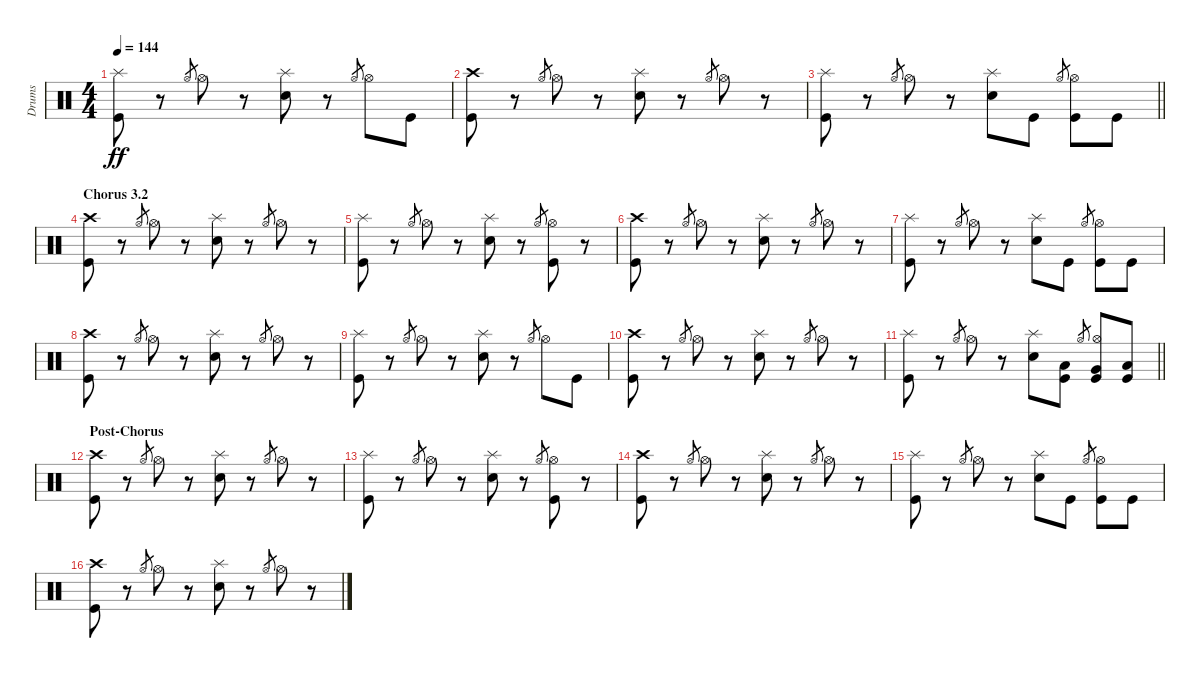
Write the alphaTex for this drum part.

\track ("Drums" "Drums") {instrument percussion}
\staff {score}
\articulation defaults
\ts (4 4)
\tempo 144
\clef neutral
\ks c
("Splash (hit)" "Kick (hit)").8{dy ff} r.8 "Hi-Hat (open)".8{gr} "Hi-Hat (open)".8 r.8 ("Splash (hit)" "Snare (hit) 2").8 r.8 "Hi-Hat (open)".8{gr} "Hi-Hat (open)".8 "Kick (hit)".8 |
("Crash high (hit)" "Kick (hit)").8 r.8 "Hi-Hat (open)".8{gr} "Hi-Hat (open)".8 r.8 ("Splash (hit)" "Snare (hit) 2").8 r.8 "Hi-Hat (open)".8{gr} "Hi-Hat (open)".8 r.8 |
\barLineRight lightlight
("Splash (hit)" "Kick (hit)").8 r.8 "Hi-Hat (open)".8{gr} "Hi-Hat (open)".8 r.8 ("Splash (hit)" "Snare (hit) 2").8 "Kick (hit)".8 "Hi-Hat (open)".8{gr} ("Hi-Hat (open)" "Kick (hit)").8 "Kick (hit)".8 |
\section ("" "Chorus 3.2")
("Crash high (hit)" "Kick (hit)").8 r.8 "Hi-Hat (open)".8{gr} "Hi-Hat (open)".8 r.8 ("Splash (hit)" "Snare (hit) 2").8 r.8 "Hi-Hat (open)".8{gr} "Hi-Hat (open)".8 r.8 |
("Splash (hit)" "Kick (hit)").8 r.8 "Hi-Hat (open)".8{gr} "Hi-Hat (open)".8 r.8 ("Splash (hit)" "Snare (hit) 2").8 r.8 "Hi-Hat (open)".8{gr} ("Hi-Hat (open)" "Kick (hit)").8 r.8 |
("Crash high (hit)" "Kick (hit)").8 r.8 "Hi-Hat (open)".8{gr} "Hi-Hat (open)".8 r.8 ("Splash (hit)" "Snare (hit) 2").8 r.8 "Hi-Hat (open)".8{gr} "Hi-Hat (open)".8 r.8 |
("Splash (hit)" "Kick (hit)").8 r.8 "Hi-Hat (open)".8{gr} "Hi-Hat (open)".8 r.8 ("Splash (hit)" "Snare (hit) 2").8 "Kick (hit)".8 "Hi-Hat (open)".8{gr} ("Hi-Hat (open)" "Kick (hit)").8 "Kick (hit)".8 |
("Crash high (hit)" "Kick (hit)").8 r.8 "Hi-Hat (open)".8{gr} "Hi-Hat (open)".8 r.8 ("Splash (hit)" "Snare (hit) 2").8 r.8 "Hi-Hat (open)".8{gr} "Hi-Hat (open)".8 r.8 |
("Splash (hit)" "Kick (hit)").8 r.8 "Hi-Hat (open)".8{gr} "Hi-Hat (open)".8 r.8 ("Splash (hit)" "Snare (hit) 2").8 r.8 "Hi-Hat (open)".8{gr} "Hi-Hat (open)".8 "Kick (hit)".8 |
("Crash high (hit)" "Kick (hit)").8 r.8 "Hi-Hat (open)".8{gr} "Hi-Hat (open)".8 r.8 ("Splash (hit)" "Snare (hit) 2").8 r.8 "Hi-Hat (open)".8{gr} "Hi-Hat (open)".8 r.8 |
\barLineRight lightlight
("Splash (hit)" "Kick (hit)").8 r.8 "Hi-Hat (open)".8{gr} "Hi-Hat (open)".8 r.8 ("Splash (hit)" "Snare (hit) 2").8 ("Low Tom (hit)" "Kick (hit)").8 "Hi-Hat (open)".8{gr} ("Hi-Hat (open)" "Very Low Tom (hit)" "Kick (hit)").8 ("Low Floor Tom (hit)" "Kick (hit)").8 |
\section ("" "Post-Chorus")
("Crash high (hit)" "Kick (hit)").8 r.8 "Hi-Hat (open)".8{gr} "Hi-Hat (open)".8 r.8 ("Splash (hit)" "Snare (hit) 2").8 r.8 "Hi-Hat (open)".8{gr} "Hi-Hat (open)".8 r.8 |
("Splash (hit)" "Kick (hit)").8 r.8 "Hi-Hat (open)".8{gr} "Hi-Hat (open)".8 r.8 ("Splash (hit)" "Snare (hit) 2").8 r.8 "Hi-Hat (open)".8{gr} ("Hi-Hat (open)" "Kick (hit)").8 r.8 |
("Crash high (hit)" "Kick (hit)").8 r.8 "Hi-Hat (open)".8{gr} "Hi-Hat (open)".8 r.8 ("Splash (hit)" "Snare (hit) 2").8 r.8 "Hi-Hat (open)".8{gr} "Hi-Hat (open)".8 r.8 |
("Splash (hit)" "Kick (hit)").8 r.8 "Hi-Hat (open)".8{gr} "Hi-Hat (open)".8 r.8 ("Splash (hit)" "Snare (hit) 2").8 "Kick (hit)".8 "Hi-Hat (open)".8{gr} ("Hi-Hat (open)" "Kick (hit)").8 "Kick (hit)".8 |
("Crash high (hit)" "Kick (hit)").8 r.8 "Hi-Hat (open)".8{gr} "Hi-Hat (open)".8 r.8 ("Splash (hit)" "Snare (hit) 2").8 r.8 "Hi-Hat (open)".8{gr} "Hi-Hat (open)".8 r.8
